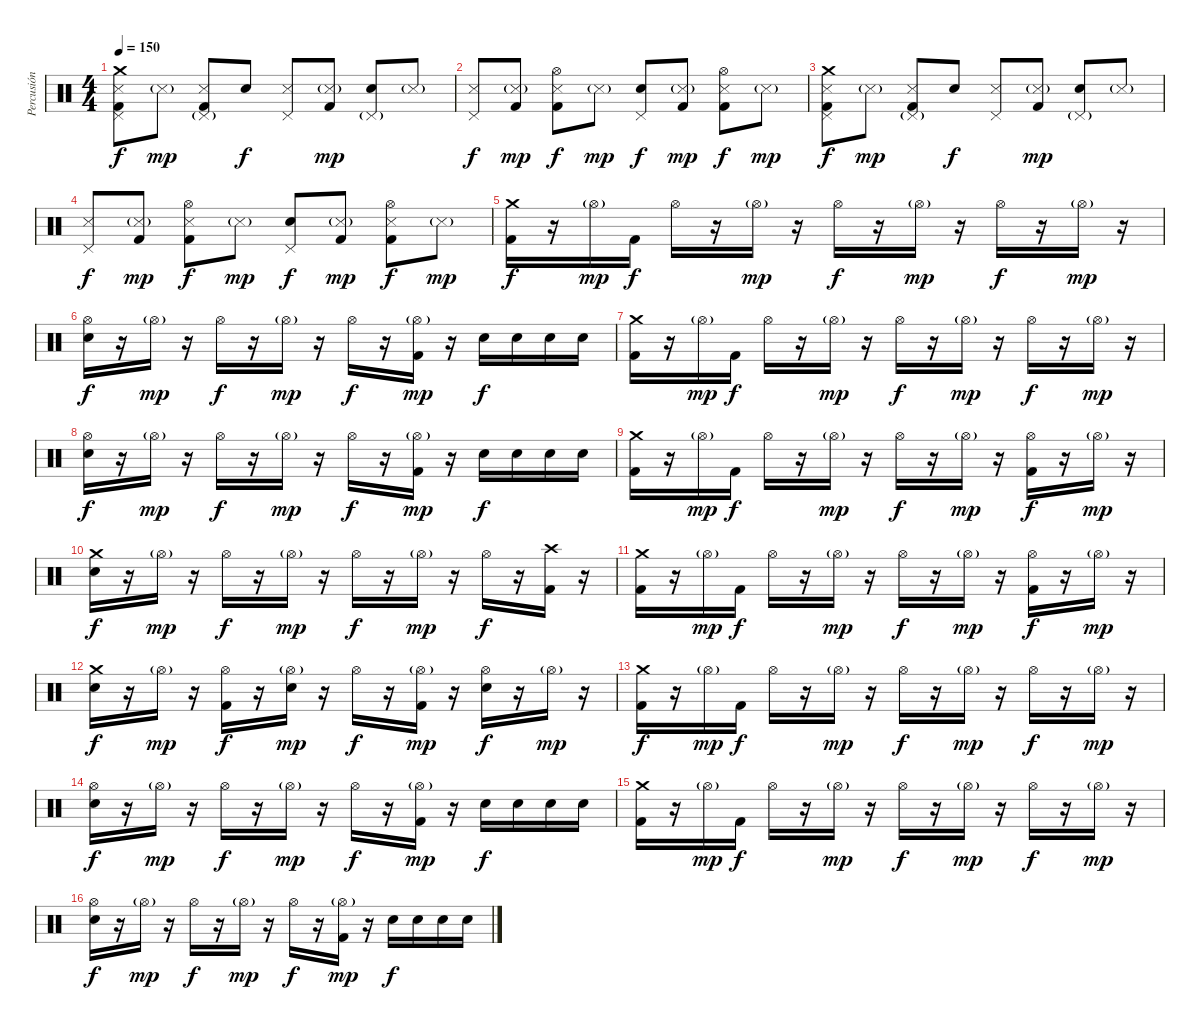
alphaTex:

\track ("Percusión" "Percusión") {instrument percussion}
\staff {score}
\articulation defaults
\ts (4 4)
\tempo 150
\clef neutral
\ks c
("Crash medium (hit)" "Pedal Hi-Hat (hit)" "Snare (side stick) 3" "Kick (hit) 2").8{dy f} "Snare (side stick) 3"{g}.8{dy mp} ("Pedal Hi-Hat (hit)"{g} "Snare (side stick) 3" "Kick (hit) 2").8 "Electric Snare (hit)".8{dy f} ("Pedal Hi-Hat (hit)" "Snare (side stick) 3").8 ("Snare (side stick) 3"{g} "Kick (hit) 2").8{dy mp} ("Pedal Hi-Hat (hit)"{g} "Electric Snare (hit)").8 "Snare (side stick) 3"{g}.8 |
("Pedal Hi-Hat (hit)" "Snare (side stick) 3").8{dy f} ("Snare (side stick) 3"{g} "Kick (hit) 2").8{dy mp} ("Hi-Hat (open)" "Snare (side stick) 3" "Kick (hit) 2").8{dy f} "Snare (side stick) 3"{g}.8{dy mp} ("Pedal Hi-Hat (hit)" "Electric Snare (hit)").8{dy f} ("Snare (side stick) 3"{g} "Kick (hit) 2").8{dy mp} ("Hi-Hat (open)" "Snare (side stick) 3" "Kick (hit) 2").8{dy f} "Snare (side stick) 3"{g}.8{dy mp} |
("Crash medium (hit)" "Pedal Hi-Hat (hit)" "Snare (side stick) 3" "Kick (hit) 2").8{dy f} "Snare (side stick) 3"{g}.8{dy mp} ("Pedal Hi-Hat (hit)"{g} "Snare (side stick) 3" "Kick (hit) 2").8 "Electric Snare (hit)".8{dy f} ("Pedal Hi-Hat (hit)" "Snare (side stick) 3").8 ("Snare (side stick) 3"{g} "Kick (hit) 2").8{dy mp} ("Pedal Hi-Hat (hit)"{g} "Electric Snare (hit)").8 "Snare (side stick) 3"{g}.8 |
("Pedal Hi-Hat (hit)" "Snare (side stick) 3").8{dy f} ("Snare (side stick) 3"{g} "Kick (hit) 2").8{dy mp} ("Hi-Hat (open)" "Snare (side stick) 3" "Kick (hit) 2").8{dy f} "Snare (side stick) 3"{g}.8{dy mp} ("Pedal Hi-Hat (hit)" "Electric Snare (hit)").8{dy f} ("Snare (side stick) 3"{g} "Kick (hit) 2").8{dy mp} ("Hi-Hat (open)" "Snare (side stick) 3" "Kick (hit) 2").8{dy f} "Snare (side stick) 3"{g}.8{dy mp} |
("Crash medium (hit)" "Kick (hit) 2").16{dy f} r.16 "Hi-Hat (open)"{g}.16{dy mp} "Kick (hit) 2".16{dy f} "Hi-Hat (open)".16 r.16 "Hi-Hat (open)"{g}.16{dy mp} r.16 "Hi-Hat (open)".16{dy f} r.16 "Hi-Hat (open)"{g}.16{dy mp} r.16 "Hi-Hat (open)".16{dy f} r.16 "Hi-Hat (open)"{g}.16{dy mp} r.16 |
("Hi-Hat (open)" "Electric Snare (hit)").16{dy f} r.16 "Hi-Hat (open)"{g}.16{dy mp} r.16 "Hi-Hat (open)".16{dy f} r.16 "Hi-Hat (open)"{g}.16{dy mp} r.16 "Hi-Hat (open)".16{dy f} r.16 ("Hi-Hat (open)"{g} "Kick (hit) 2").16{dy mp} r.16 "Electric Snare (hit)".16{dy f} "Electric Snare (hit)".16 "Electric Snare (hit)".16 "Electric Snare (hit)".16 |
("Crash medium (hit)" "Kick (hit) 2").16 r.16 "Hi-Hat (open)"{g}.16{dy mp} "Kick (hit) 2".16{dy f} "Hi-Hat (open)".16 r.16 "Hi-Hat (open)"{g}.16{dy mp} r.16 "Hi-Hat (open)".16{dy f} r.16 "Hi-Hat (open)"{g}.16{dy mp} r.16 "Hi-Hat (open)".16{dy f} r.16 "Hi-Hat (open)"{g}.16{dy mp} r.16 |
("Hi-Hat (open)" "Electric Snare (hit)").16{dy f} r.16 "Hi-Hat (open)"{g}.16{dy mp} r.16 "Hi-Hat (open)".16{dy f} r.16 "Hi-Hat (open)"{g}.16{dy mp} r.16 "Hi-Hat (open)".16{dy f} r.16 ("Hi-Hat (open)"{g} "Kick (hit) 2").16{dy mp} r.16 "Electric Snare (hit)".16{dy f} "Electric Snare (hit)".16 "Electric Snare (hit)".16 "Electric Snare (hit)".16 |
("Crash medium (hit)" "Kick (hit) 2").16 r.16 "Hi-Hat (open)"{g}.16{dy mp} "Kick (hit) 2".16{dy f} "Hi-Hat (open)".16 r.16 "Hi-Hat (open)"{g}.16{dy mp} r.16 "Hi-Hat (open)".16{dy f} r.16 "Hi-Hat (open)"{g}.16{dy mp} r.16 ("Hi-Hat (open)" "Kick (hit) 2").16{dy f} r.16 "Hi-Hat (open)"{g}.16{dy mp} r.16 |
("Crash medium (hit)" "Electric Snare (hit)").16{dy f} r.16 "Hi-Hat (open)"{g}.16{dy mp} r.16 "Hi-Hat (open)".16{dy f} r.16 "Hi-Hat (open)"{g}.16{dy mp} r.16 "Hi-Hat (open)".16{dy f} r.16 "Hi-Hat (open)"{g}.16{dy mp} r.16 "Hi-Hat (open)".16{dy f} r.16 ("Crash high (hit)" "Kick (hit) 2").16 r.16 |
("Crash medium (hit)" "Kick (hit) 2").16 r.16 "Hi-Hat (open)"{g}.16{dy mp} "Kick (hit) 2".16{dy f} "Hi-Hat (open)".16 r.16 "Hi-Hat (open)"{g}.16{dy mp} r.16 "Hi-Hat (open)".16{dy f} r.16 "Hi-Hat (open)"{g}.16{dy mp} r.16 ("Hi-Hat (open)" "Kick (hit) 2").16{dy f} r.16 "Hi-Hat (open)"{g}.16{dy mp} r.16 |
("Crash medium (hit)" "Electric Snare (hit)").16{dy f} r.16 "Hi-Hat (open)"{g}.16{dy mp} r.16 ("Hi-Hat (open)" "Kick (hit) 2").16{dy f} r.16 ("Hi-Hat (open)"{g} "Electric Snare (hit)").16{dy mp} r.16 "Hi-Hat (open)".16{dy f} r.16 ("Hi-Hat (open)"{g} "Kick (hit) 2").16{dy mp} r.16 ("Hi-Hat (open)" "Electric Snare (hit)").16{dy f} r.16 "Hi-Hat (open)"{g}.16{dy mp} r.16 |
("Crash medium (hit)" "Kick (hit) 2").16{dy f} r.16 "Hi-Hat (open)"{g}.16{dy mp} "Kick (hit) 2".16{dy f} "Hi-Hat (open)".16 r.16 "Hi-Hat (open)"{g}.16{dy mp} r.16 "Hi-Hat (open)".16{dy f} r.16 "Hi-Hat (open)"{g}.16{dy mp} r.16 "Hi-Hat (open)".16{dy f} r.16 "Hi-Hat (open)"{g}.16{dy mp} r.16 |
("Hi-Hat (open)" "Electric Snare (hit)").16{dy f} r.16 "Hi-Hat (open)"{g}.16{dy mp} r.16 "Hi-Hat (open)".16{dy f} r.16 "Hi-Hat (open)"{g}.16{dy mp} r.16 "Hi-Hat (open)".16{dy f} r.16 ("Hi-Hat (open)"{g} "Kick (hit) 2").16{dy mp} r.16 "Electric Snare (hit)".16{dy f} "Electric Snare (hit)".16 "Electric Snare (hit)".16 "Electric Snare (hit)".16 |
("Crash medium (hit)" "Kick (hit) 2").16 r.16 "Hi-Hat (open)"{g}.16{dy mp} "Kick (hit) 2".16{dy f} "Hi-Hat (open)".16 r.16 "Hi-Hat (open)"{g}.16{dy mp} r.16 "Hi-Hat (open)".16{dy f} r.16 "Hi-Hat (open)"{g}.16{dy mp} r.16 "Hi-Hat (open)".16{dy f} r.16 "Hi-Hat (open)"{g}.16{dy mp} r.16 |
("Hi-Hat (open)" "Electric Snare (hit)").16{dy f} r.16 "Hi-Hat (open)"{g}.16{dy mp} r.16 "Hi-Hat (open)".16{dy f} r.16 "Hi-Hat (open)"{g}.16{dy mp} r.16 "Hi-Hat (open)".16{dy f} r.16 ("Hi-Hat (open)"{g} "Kick (hit) 2").16{dy mp} r.16 "Electric Snare (hit)".16{dy f} "Electric Snare (hit)".16 "Electric Snare (hit)".16 "Electric Snare (hit)".16
